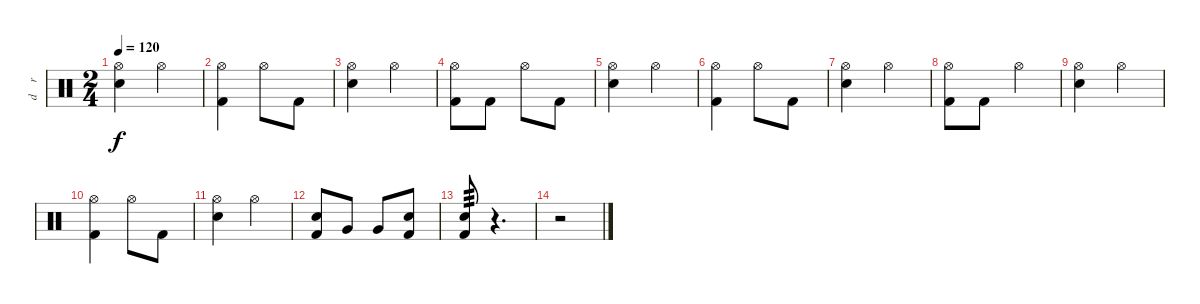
\track ("d    r     u    m    s" "d    r    ") {instrument percussion}
\staff {score}
\articulation defaults
\ts (2 4)
\tempo 120
\clef neutral
\ks c
("Hi-Hat (open)" "Snare (hit) 2").4{dy f} "Hi-Hat (open)".4 |
("Hi-Hat (open)" "Kick (hit) 2").4 "Hi-Hat (open)".8 "Kick (hit) 2".8 |
("Hi-Hat (open)" "Snare (hit) 2").4 "Hi-Hat (open)".4 |
("Hi-Hat (open)" "Kick (hit) 2").8 "Kick (hit) 2".8 "Hi-Hat (open)".8 "Kick (hit) 2".8 |
("Hi-Hat (open)" "Snare (hit) 2").4 "Hi-Hat (open)".4 |
("Hi-Hat (open)" "Kick (hit) 2").4 "Hi-Hat (open)".8 "Kick (hit) 2".8 |
("Hi-Hat (open)" "Snare (hit) 2").4 "Hi-Hat (open)".4 |
("Hi-Hat (open)" "Kick (hit) 2").8 "Kick (hit) 2".8 "Hi-Hat (open)".4 |
("Hi-Hat (open)" "Snare (hit) 2").4 "Hi-Hat (open)".4 |
("Hi-Hat (open)" "Kick (hit) 2").4 "Hi-Hat (open)".8 "Kick (hit) 2".8 |
("Hi-Hat (open)" "Snare (hit) 2").4 "Hi-Hat (open)".4 |
("Snare (hit) 2" "Kick (hit) 2").8 "Very Low Tom (hit)".8 "Very Low Tom (hit)".8 ("Snare (hit) 2" "Kick (hit) 2").8 |
("Snare (hit) 2" "Kick (hit) 2").8{tp 3} r.4{d} |
r.2
